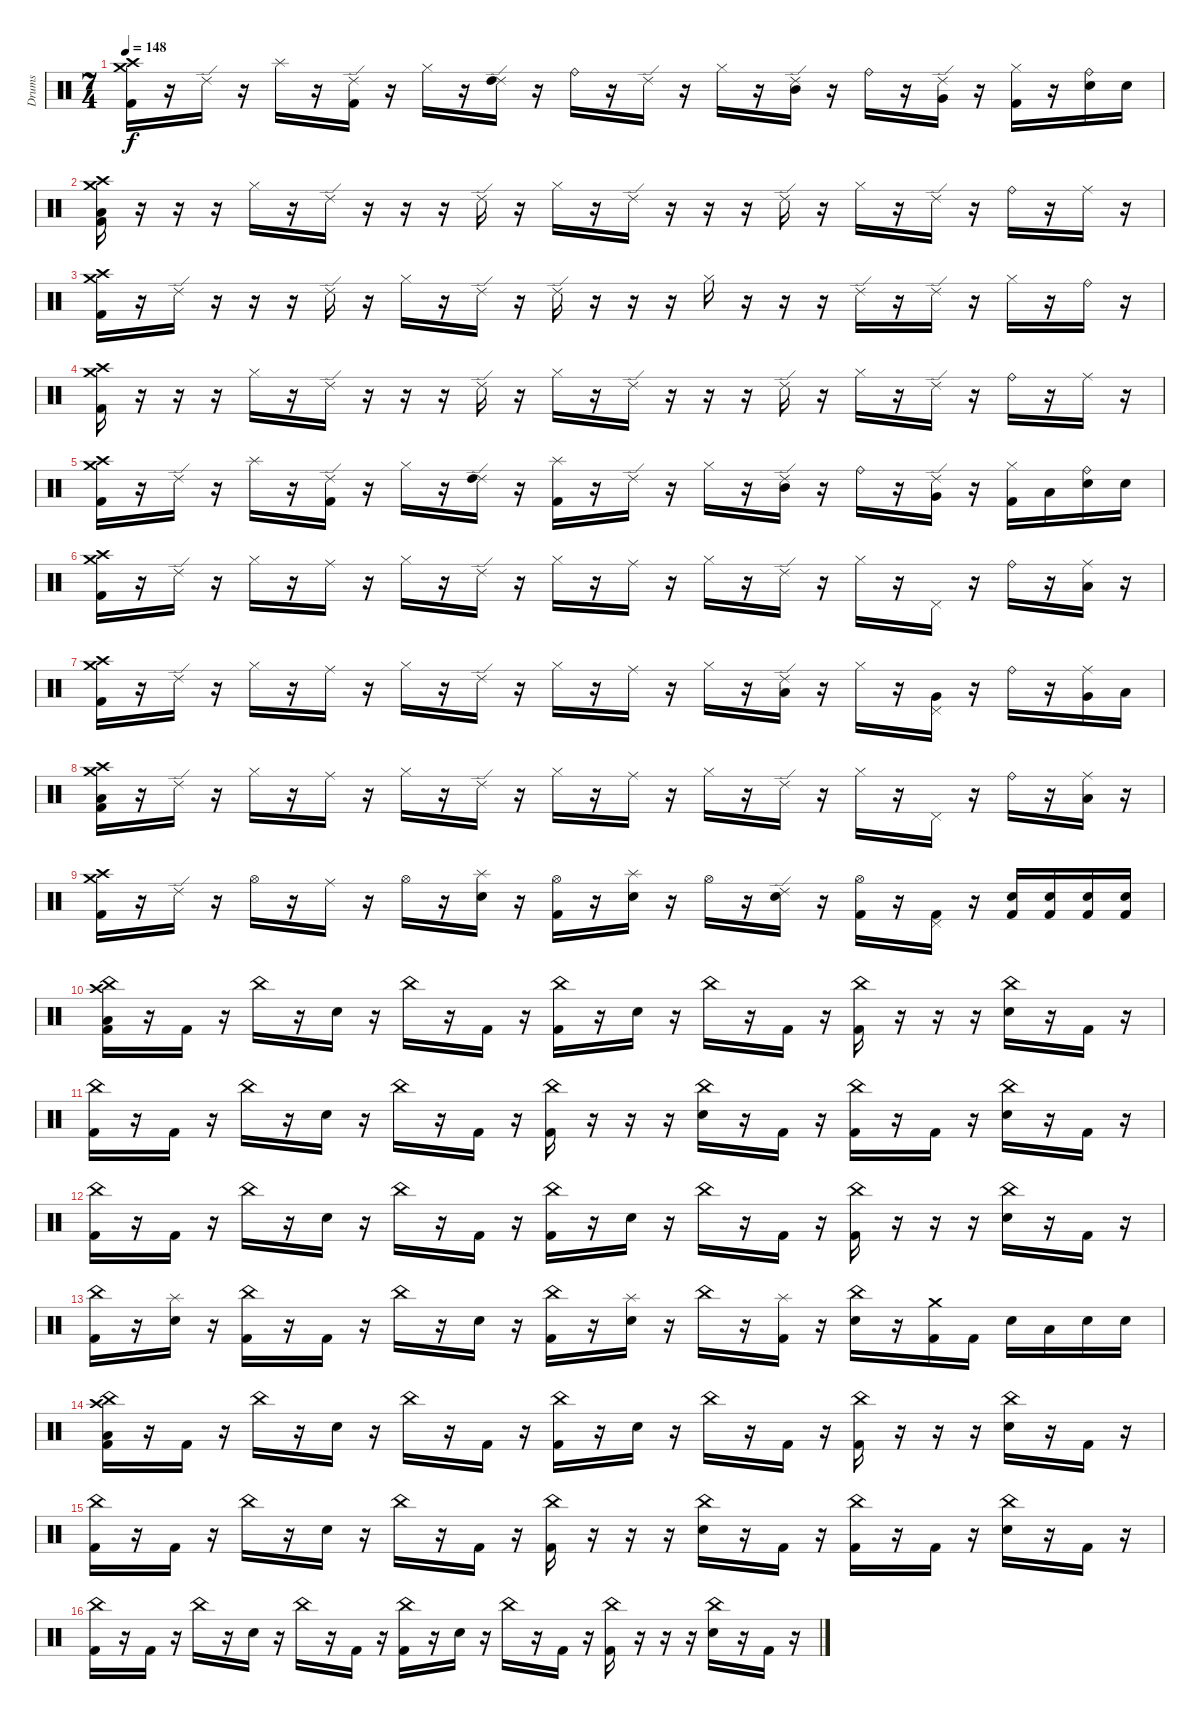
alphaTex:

\track ("Drums" "Drums") {instrument percussion}
\staff {score}
\articulation defaults
\ts (7 4)
\tempo 148
\clef neutral
\ks c
("Crash high (hit)" "Crash medium (hit)" "Kick (hit) 2").16{dy f} r.16 "Ride (edge) 2".16 r.16 "Splash (hit)".16 r.16 ("Ride (edge) 2" "Kick (hit) 2").16 r.16 "Hi-Hat (closed)".16 r.16 ("Ride (edge) 2" "High Tom (hit)").16 r.16 "Ride (bell)".16 r.16 "Ride (edge) 2".16 r.16 "Hi-Hat (closed)".16 r.16 ("Ride (edge) 2" "Mid Tom (hit)").16 r.16 "Ride (bell)".16 r.16 ("Ride (edge) 2" "Very Low Tom (hit)").16 r.16 ("Hi-Hat (closed)" "Kick (hit) 2").16 r.16 ("Ride (bell)" "Electric Snare (hit)").16 "Electric Snare (hit)".16 |
("Crash high (hit)" "Crash medium (hit)" "Low Floor Tom (hit)" "Kick (hit) 2").16 r.16 r.16 r.16 "Hi-Hat (closed)".16 r.16 "Ride (edge) 2".16 r.16 r.16 r.16 "Ride (edge) 2".16 r.16 "Hi-Hat (closed)".16 r.16 "Ride (edge) 2".16 r.16 r.16 r.16 "Ride (edge) 2".16 r.16 "Hi-Hat (closed)".16 r.16 "Ride (edge) 2".16 r.16 "Ride (bell)".16 r.16 "Ride (middle)".16 r.16 |
("Crash high (hit)" "Crash medium (hit)" "Kick (hit) 2").16 r.16 "Ride (edge) 2".16 r.16 r.16 r.16 "Ride (edge) 2".16 r.16 "Hi-Hat (closed)".16 r.16 "Ride (edge) 2".16 r.16 "Ride (edge) 2".16 r.16 r.16 r.16 "Hi-Hat (closed)".16 r.16 r.16 r.16 "Ride (edge) 2".16 r.16 "Ride (edge) 2".16 r.16 "Hi-Hat (closed)".16 r.16 "Ride (bell)".16 r.16 |
("Crash high (hit)" "Crash medium (hit)" "Kick (hit) 2").16 r.16 r.16 r.16 "Hi-Hat (closed)".16 r.16 "Ride (edge) 2".16 r.16 r.16 r.16 "Ride (edge) 2".16 r.16 "Hi-Hat (closed)".16 r.16 "Ride (edge) 2".16 r.16 r.16 r.16 "Ride (edge) 2".16 r.16 "Hi-Hat (closed)".16 r.16 "Ride (edge) 2".16 r.16 "Ride (bell)".16 r.16 "Ride (middle)".16 r.16 |
("Crash high (hit)" "Crash medium (hit)" "Kick (hit) 2").16 r.16 "Ride (edge) 2".16 r.16 "Splash (hit)".16 r.16 ("Ride (edge) 2" "Kick (hit) 2").16 r.16 "Hi-Hat (closed)".16 r.16 ("Ride (edge) 2" "High Tom (hit)").16 r.16 ("Splash (hit)" "Kick (hit) 2").16 r.16 "Ride (edge) 2".16 r.16 "Hi-Hat (closed)".16 r.16 ("Ride (edge) 2" "Mid Tom (hit)").16 r.16 "Ride (bell)".16 r.16 ("Ride (edge) 2" "Very Low Tom (hit)").16 r.16 ("Hi-Hat (closed)" "Kick (hit) 2").16 "Low Tom (hit)".16 ("Ride (bell)" "Electric Snare (hit)").16 "Electric Snare (hit)".16 |
("Crash high (hit)" "Crash medium (hit)" "Kick (hit) 2").16 r.16 "Ride (edge) 2".16 r.16 "Hi-Hat (closed)".16 r.16 "Ride (middle)".16 r.16 "Hi-Hat (closed)".16 r.16 "Ride (edge) 2".16 r.16 "Hi-Hat (closed)".16 r.16 "Ride (middle)".16 r.16 "Hi-Hat (closed)".16 r.16 "Ride (edge) 2".16 r.16 "Hi-Hat (closed)".16 r.16 "Pedal Hi-Hat (hit)".16 r.16 "Ride (bell)".16 r.16 ("Ride (middle)" "Low Floor Tom (hit)").16 r.16 |
("Crash high (hit)" "Crash medium (hit)" "Kick (hit) 2").16 r.16 "Ride (edge) 2".16 r.16 "Hi-Hat (closed)".16 r.16 "Ride (middle)".16 r.16 "Hi-Hat (closed)".16 r.16 "Ride (edge) 2".16 r.16 "Hi-Hat (closed)".16 r.16 "Ride (middle)".16 r.16 "Hi-Hat (closed)".16 r.16 ("Ride (edge) 2" "Low Tom (hit)").16 r.16 "Hi-Hat (closed)".16 r.16 ("Pedal Hi-Hat (hit)" "Very Low Tom (hit)").16 r.16 "Ride (bell)".16 r.16 ("Ride (middle)" "Very Low Tom (hit)").16 "Low Floor Tom (hit)".16 |
("Crash high (hit)" "Crash medium (hit)" "Low Floor Tom (hit)" "Kick (hit) 2").16 r.16 "Ride (edge) 2".16 r.16 "Hi-Hat (closed)".16 r.16 "Ride (middle)".16 r.16 "Hi-Hat (closed)".16 r.16 "Ride (edge) 2".16 r.16 "Hi-Hat (closed)".16 r.16 "Ride (middle)".16 r.16 "Hi-Hat (closed)".16 r.16 "Ride (edge) 2".16 r.16 "Hi-Hat (closed)".16 r.16 "Pedal Hi-Hat (hit)".16 r.16 "Ride (bell)".16 r.16 ("Ride (middle)" "Low Floor Tom (hit)").16 r.16 |
("Crash high (hit)" "Crash medium (hit)" "Kick (hit) 2").16 r.16 "Ride (edge) 2".16 r.16 "Hi-Hat (open)".16 r.16 "Ride (middle)".16 r.16 "Hi-Hat (open)".16 r.16 ("Splash (hit)" "Electric Snare (hit)").16 r.16 ("Hi-Hat (open)" "Kick (hit) 2").16 r.16 ("Splash (hit)" "Electric Snare (hit)").16 r.16 "Hi-Hat (open)".16 r.16 ("Ride (edge) 2" "Electric Snare (hit)").16 r.16 ("Hi-Hat (open)" "Kick (hit) 2").16 r.16 ("Pedal Hi-Hat (hit)" "Kick (hit) 2").16 r.16 ("Electric Snare (hit)" "Kick (hit) 2").16 ("Electric Snare (hit)" "Kick (hit) 2").16 ("Electric Snare (hit)" "Kick (hit) 2").16 ("Electric Snare (hit)" "Kick (hit) 2").16 |
("Crash high (hit)" "China (hit)" "Low Floor Tom (hit)" "Kick (hit) 2").16 r.16 "Kick (hit) 2".16 r.16 "China (hit)".16 r.16 "Electric Snare (hit)".16 r.16 "China (hit)".16 r.16 "Kick (hit) 2".16 r.16 ("China (hit)" "Kick (hit) 2").16 r.16 "Electric Snare (hit)".16 r.16 "China (hit)".16 r.16 "Kick (hit) 2".16 r.16 ("China (hit)" "Kick (hit) 2").16 r.16 r.16 r.16 ("China (hit)" "Electric Snare (hit)").16 r.16 "Kick (hit) 2".16 r.16 |
("China (hit)" "Kick (hit) 2").16 r.16 "Kick (hit) 2".16 r.16 "China (hit)".16 r.16 "Electric Snare (hit)".16 r.16 "China (hit)".16 r.16 "Kick (hit) 2".16 r.16 ("China (hit)" "Kick (hit) 2").16 r.16 r.16 r.16 ("China (hit)" "Electric Snare (hit)").16 r.16 "Kick (hit) 2".16 r.16 ("China (hit)" "Kick (hit) 2").16 r.16 "Kick (hit) 2".16 r.16 ("China (hit)" "Electric Snare (hit)").16 r.16 "Kick (hit) 2".16 r.16 |
("China (hit)" "Kick (hit) 2").16 r.16 "Kick (hit) 2".16 r.16 "China (hit)".16 r.16 "Electric Snare (hit)".16 r.16 "China (hit)".16 r.16 "Kick (hit) 2".16 r.16 ("China (hit)" "Kick (hit) 2").16 r.16 "Electric Snare (hit)".16 r.16 "China (hit)".16 r.16 "Kick (hit) 2".16 r.16 ("China (hit)" "Kick (hit) 2").16 r.16 r.16 r.16 ("China (hit)" "Electric Snare (hit)").16 r.16 "Kick (hit) 2".16 r.16 |
("China (hit)" "Kick (hit) 2").16 r.16 ("Splash (hit)" "Electric Snare (hit)").16 r.16 ("China (hit)" "Kick (hit) 2").16 r.16 "Kick (hit) 2".16 r.16 "China (hit)".16 r.16 "Electric Snare (hit)".16 r.16 ("China (hit)" "Kick (hit) 2").16 r.16 ("Splash (hit)" "Electric Snare (hit)").16 r.16 "China (hit)".16 r.16 ("Splash (hit)" "Kick (hit) 2").16 r.16 ("China (hit)" "Electric Snare (hit)").16 r.16 ("Crash medium (hit)" "Kick (hit) 2").16 "Kick (hit) 2".16 "Electric Snare (hit)".16 "Low Tom (hit)".16 "Electric Snare (hit)".16 "Electric Snare (hit)".16 |
("Crash high (hit)" "China (hit)" "Low Floor Tom (hit)" "Kick (hit) 2").16 r.16 "Kick (hit) 2".16 r.16 "China (hit)".16 r.16 "Electric Snare (hit)".16 r.16 "China (hit)".16 r.16 "Kick (hit) 2".16 r.16 ("China (hit)" "Kick (hit) 2").16 r.16 "Electric Snare (hit)".16 r.16 "China (hit)".16 r.16 "Kick (hit) 2".16 r.16 ("China (hit)" "Kick (hit) 2").16 r.16 r.16 r.16 ("China (hit)" "Electric Snare (hit)").16 r.16 "Kick (hit) 2".16 r.16 |
("China (hit)" "Kick (hit) 2").16 r.16 "Kick (hit) 2".16 r.16 "China (hit)".16 r.16 "Electric Snare (hit)".16 r.16 "China (hit)".16 r.16 "Kick (hit) 2".16 r.16 ("China (hit)" "Kick (hit) 2").16 r.16 r.16 r.16 ("China (hit)" "Electric Snare (hit)").16 r.16 "Kick (hit) 2".16 r.16 ("China (hit)" "Kick (hit) 2").16 r.16 "Kick (hit) 2".16 r.16 ("China (hit)" "Electric Snare (hit)").16 r.16 "Kick (hit) 2".16 r.16 |
("China (hit)" "Kick (hit) 2").16 r.16 "Kick (hit) 2".16 r.16 "China (hit)".16 r.16 "Electric Snare (hit)".16 r.16 "China (hit)".16 r.16 "Kick (hit) 2".16 r.16 ("China (hit)" "Kick (hit) 2").16 r.16 "Electric Snare (hit)".16 r.16 "China (hit)".16 r.16 "Kick (hit) 2".16 r.16 ("China (hit)" "Kick (hit) 2").16 r.16 r.16 r.16 ("China (hit)" "Electric Snare (hit)").16 r.16 "Kick (hit) 2".16 r.16
